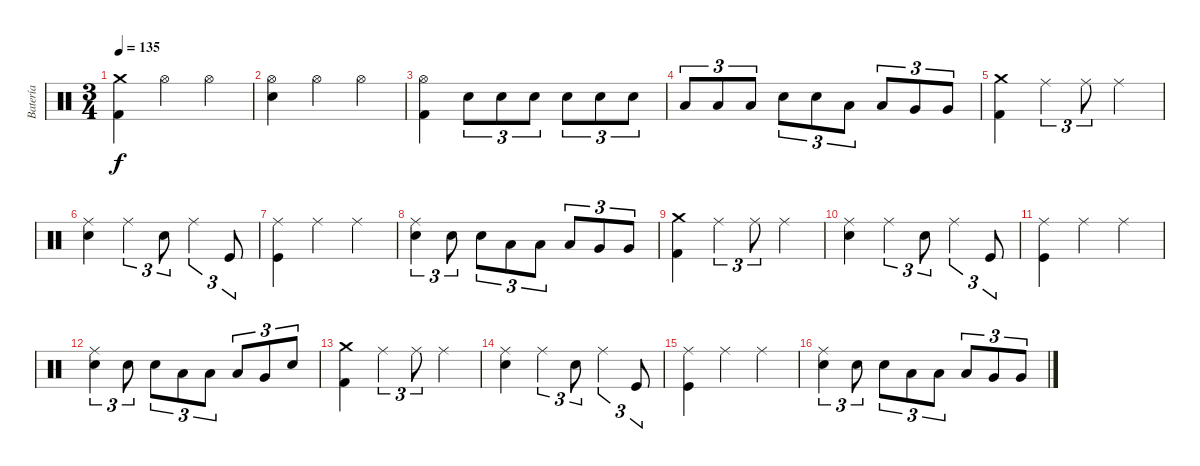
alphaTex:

\track ("Batería" "Batería") {instrument percussion}
\staff {score}
\articulation defaults
\ts (3 4)
\tempo 135
\clef neutral
\ks c
("Crash medium (hit)" "Kick (hit) 2").4{dy f} "Hi-Hat (open)".4 "Hi-Hat (open)".4 |
("Hi-Hat (open)" "Snare (hit) 2").4 "Hi-Hat (open)".4 "Hi-Hat (open)".4 |
("Hi-Hat (open)" "Kick (hit) 2").4 "Snare (hit) 2".8{tu (3 2)} "Snare (hit) 2".8{tu (3 2)} "Snare (hit) 2".8{tu (3 2)} "Snare (hit) 2".8{tu (3 2)} "Snare (hit) 2".8{tu (3 2)} "Snare (hit) 2".8{tu (3 2)} |
"Low Tom (hit)".8{tu (3 2)} "Low Tom (hit)".8{tu (3 2)} "Low Tom (hit)".8{tu (3 2)} "Snare (hit) 2".8{tu (3 2)} "Snare (hit) 2".8{tu (3 2)} "Low Tom (hit)".8{tu (3 2)} "Low Tom (hit)".8{tu (3 2)} "Very Low Tom (hit)".8{tu (3 2)} "Very Low Tom (hit)".8{tu (3 2)} |
("Crash medium (hit)" "Kick (hit) 2").4 "Ride (middle)".4{tu (3 2)} "Ride (middle)".8{tu (3 2)} "Ride (middle)".4 |
("Ride (middle)" "Snare (hit) 2").4 "Ride (middle)".4{tu (3 2)} "Snare (hit) 2".8{tu (3 2)} "Ride (middle)".4{tu (3 2)} "Kick (hit)".8{tu (3 2)} |
("Ride (middle)" "Kick (hit)").4 "Ride (middle)".4 "Ride (middle)".4 |
("Ride (middle)" "Snare (hit) 2").4{tu (3 2)} "Snare (hit) 2".8{tu (3 2)} "Snare (hit) 2".8{tu (3 2)} "Low Tom (hit)".8{tu (3 2)} "Low Tom (hit)".8{tu (3 2)} "Low Tom (hit)".8{tu (3 2)} "Very Low Tom (hit)".8{tu (3 2)} "Very Low Tom (hit)".8{tu (3 2)} |
("Crash medium (hit)" "Kick (hit) 2").4 "Ride (middle)".4{tu (3 2)} "Ride (middle)".8{tu (3 2)} "Ride (middle)".4 |
("Ride (middle)" "Snare (hit) 2").4 "Ride (middle)".4{tu (3 2)} "Snare (hit) 2".8{tu (3 2)} "Ride (middle)".4{tu (3 2)} "Kick (hit)".8{tu (3 2)} |
("Ride (middle)" "Kick (hit)").4 "Ride (middle)".4 "Ride (middle)".4 |
("Ride (middle)" "Snare (hit) 2").4{tu (3 2)} "Snare (hit) 2".8{tu (3 2)} "Snare (hit) 2".8{tu (3 2)} "Low Tom (hit)".8{tu (3 2)} "Low Tom (hit)".8{tu (3 2)} "Low Tom (hit)".8{tu (3 2)} "Very Low Tom (hit)".8{tu (3 2)} "Snare (hit) 2".8{tu (3 2)} |
("Crash medium (hit)" "Kick (hit) 2").4 "Ride (middle)".4{tu (3 2)} "Ride (middle)".8{tu (3 2)} "Ride (middle)".4 |
("Ride (middle)" "Snare (hit) 2").4 "Ride (middle)".4{tu (3 2)} "Snare (hit) 2".8{tu (3 2)} "Ride (middle)".4{tu (3 2)} "Kick (hit)".8{tu (3 2)} |
("Ride (middle)" "Kick (hit)").4 "Ride (middle)".4 "Ride (middle)".4 |
("Ride (middle)" "Snare (hit) 2").4{tu (3 2)} "Snare (hit) 2".8{tu (3 2)} "Snare (hit) 2".8{tu (3 2)} "Low Tom (hit)".8{tu (3 2)} "Low Tom (hit)".8{tu (3 2)} "Low Tom (hit)".8{tu (3 2)} "Very Low Tom (hit)".8{tu (3 2)} "Very Low Tom (hit)".8{tu (3 2)}
